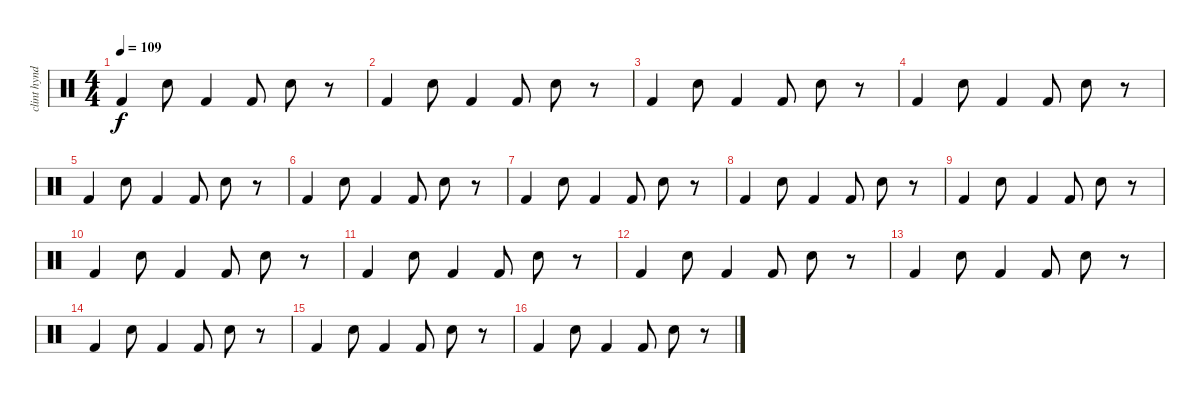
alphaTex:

\track ("clint hyndman" "clint hynd") {instrument percussion}
\staff {score}
\articulation defaults
\ts (4 4)
\tempo 109
\clef neutral
\ks c "Kick (hit) 2".4{dy f} "Electric Snare (hit)".8 "Kick (hit) 2".4 "Kick (hit) 2".8 "Electric Snare (hit)".8
r.8 |
"Kick (hit) 2".4 "Electric Snare (hit)".8 "Kick (hit) 2".4 "Kick (hit) 2".8 "Electric Snare (hit)".8 r.8 |
"Kick (hit) 2".4 "Electric Snare (hit)".8 "Kick (hit) 2".4 "Kick (hit) 2".8 "Electric Snare (hit)".8 r.8 |
"Kick (hit) 2".4 "Electric Snare (hit)".8 "Kick (hit) 2".4 "Kick (hit) 2".8 "Electric Snare (hit)".8 r.8 |
"Kick (hit) 2".4 "Electric Snare (hit)".8 "Kick (hit) 2".4 "Kick (hit) 2".8 "Electric Snare (hit)".8 r.8 |
"Kick (hit) 2".4 "Electric Snare (hit)".8 "Kick (hit) 2".4 "Kick (hit) 2".8 "Electric Snare (hit)".8 r.8 |
"Kick (hit) 2".4 "Electric Snare (hit)".8 "Kick (hit) 2".4 "Kick (hit) 2".8 "Electric Snare (hit)".8 r.8 |
"Kick (hit) 2".4 "Electric Snare (hit)".8 "Kick (hit) 2".4 "Kick (hit) 2".8 "Electric Snare (hit)".8 r.8 |
"Kick (hit) 2".4 "Electric Snare (hit)".8 "Kick (hit) 2".4 "Kick (hit) 2".8 "Electric Snare (hit)".8 r.8 |
"Kick (hit) 2".4 "Electric Snare (hit)".8 "Kick (hit) 2".4 "Kick (hit) 2".8 "Electric Snare (hit)".8 r.8 |
"Kick (hit) 2".4 "Electric Snare (hit)".8 "Kick (hit) 2".4 "Kick (hit) 2".8 "Electric Snare (hit)".8 r.8 |
"Kick (hit) 2".4 "Electric Snare (hit)".8 "Kick (hit) 2".4 "Kick (hit) 2".8 "Electric Snare (hit)".8 r.8 |
"Kick (hit) 2".4 "Electric Snare (hit)".8 "Kick (hit) 2".4 "Kick (hit) 2".8 "Electric Snare (hit)".8 r.8 |
"Kick (hit) 2".4 "Electric Snare (hit)".8 "Kick (hit) 2".4 "Kick (hit) 2".8 "Electric Snare (hit)".8 r.8 |
"Kick (hit) 2".4 "Electric Snare (hit)".8 "Kick (hit) 2".4 "Kick (hit) 2".8 "Electric Snare (hit)".8 r.8 |
"Kick (hit) 2".4 "Electric Snare (hit)".8 "Kick (hit) 2".4 "Kick (hit) 2".8 "Electric Snare (hit)".8 r.8
